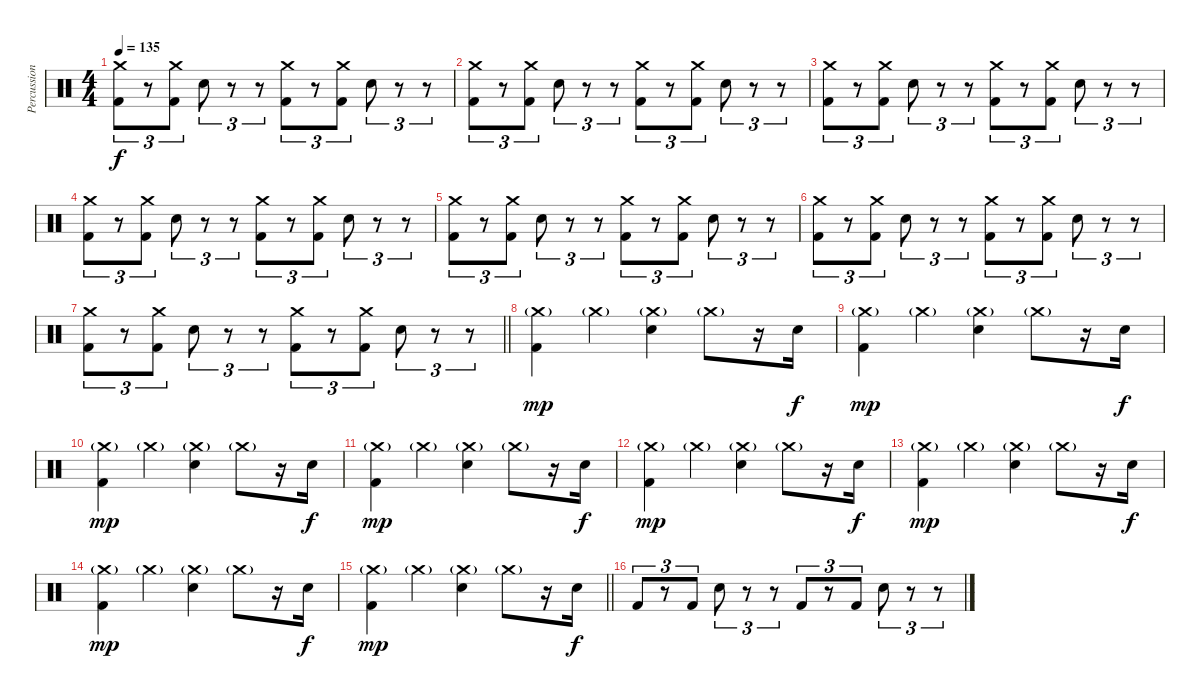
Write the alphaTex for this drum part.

\track ("Percussion" "Percussion") {instrument percussion}
\staff {score}
\articulation defaults
\ts (4 4)
\tempo 135
\clef neutral
\ks c
("Crash medium (hit)" "Kick (hit) 2").8{tu (3 2) dy f} r.8{tu (3 2)} ("Crash medium (hit)" "Kick (hit) 2").8{tu (3 2)} "Electric Snare (hit)".8{tu (3 2)} r.8{tu (3 2)} r.8{tu (3 2)} ("Crash medium (hit)" "Kick (hit) 2").8{tu (3 2)} r.8{tu (3 2)} ("Crash medium (hit)" "Kick (hit) 2").8{tu (3 2)} "Electric Snare (hit)".8{tu (3 2)} r.8{tu (3 2)} r.8{tu (3 2)} |
("Crash medium (hit)" "Kick (hit) 2").8{tu (3 2)} r.8{tu (3 2)} ("Crash medium (hit)" "Kick (hit) 2").8{tu (3 2)} "Electric Snare (hit)".8{tu (3 2)} r.8{tu (3 2)} r.8{tu (3 2)} ("Crash medium (hit)" "Kick (hit) 2").8{tu (3 2)} r.8{tu (3 2)} ("Crash medium (hit)" "Kick (hit) 2").8{tu (3 2)} "Electric Snare (hit)".8{tu (3 2)} r.8{tu (3 2)} r.8{tu (3 2)} |
("Crash medium (hit)" "Kick (hit) 2").8{tu (3 2)} r.8{tu (3 2)} ("Crash medium (hit)" "Kick (hit) 2").8{tu (3 2)} "Electric Snare (hit)".8{tu (3 2)} r.8{tu (3 2)} r.8{tu (3 2)} ("Crash medium (hit)" "Kick (hit) 2").8{tu (3 2)} r.8{tu (3 2)} ("Crash medium (hit)" "Kick (hit) 2").8{tu (3 2)} "Electric Snare (hit)".8{tu (3 2)} r.8{tu (3 2)} r.8{tu (3 2)} |
("Crash medium (hit)" "Kick (hit) 2").8{tu (3 2)} r.8{tu (3 2)} ("Crash medium (hit)" "Kick (hit) 2").8{tu (3 2)} "Electric Snare (hit)".8{tu (3 2)} r.8{tu (3 2)} r.8{tu (3 2)} ("Crash medium (hit)" "Kick (hit) 2").8{tu (3 2)} r.8{tu (3 2)} ("Crash medium (hit)" "Kick (hit) 2").8{tu (3 2)} "Electric Snare (hit)".8{tu (3 2)} r.8{tu (3 2)} r.8{tu (3 2)} |
("Crash medium (hit)" "Kick (hit) 2").8{tu (3 2)} r.8{tu (3 2)} ("Crash medium (hit)" "Kick (hit) 2").8{tu (3 2)} "Electric Snare (hit)".8{tu (3 2)} r.8{tu (3 2)} r.8{tu (3 2)} ("Crash medium (hit)" "Kick (hit) 2").8{tu (3 2)} r.8{tu (3 2)} ("Crash medium (hit)" "Kick (hit) 2").8{tu (3 2)} "Electric Snare (hit)".8{tu (3 2)} r.8{tu (3 2)} r.8{tu (3 2)} |
("Crash medium (hit)" "Kick (hit) 2").8{tu (3 2)} r.8{tu (3 2)} ("Crash medium (hit)" "Kick (hit) 2").8{tu (3 2)} "Electric Snare (hit)".8{tu (3 2)} r.8{tu (3 2)} r.8{tu (3 2)} ("Crash medium (hit)" "Kick (hit) 2").8{tu (3 2)} r.8{tu (3 2)} ("Crash medium (hit)" "Kick (hit) 2").8{tu (3 2)} "Electric Snare (hit)".8{tu (3 2)} r.8{tu (3 2)} r.8{tu (3 2)} |
\barLineRight lightlight
("Crash medium (hit)" "Kick (hit) 2").8{tu (3 2)} r.8{tu (3 2)} ("Crash medium (hit)" "Kick (hit) 2").8{tu (3 2)} "Electric Snare (hit)".8{tu (3 2)} r.8{tu (3 2)} r.8{tu (3 2)} ("Crash medium (hit)" "Kick (hit) 2").8{tu (3 2)} r.8{tu (3 2)} ("Crash medium (hit)" "Kick (hit) 2").8{tu (3 2)} "Electric Snare (hit)".8{tu (3 2)} r.8{tu (3 2)} r.8{tu (3 2)} |
("Crash medium (hit)"{g} "Kick (hit) 2").4{dy mp} "Crash medium (hit)"{g}.4 ("Crash medium (hit)"{g} "Electric Snare (hit)").4 "Crash medium (hit)"{g}.8 r.16 "Electric Snare (hit)".16{dy f} |
("Crash medium (hit)"{g} "Kick (hit) 2").4{dy mp} "Crash medium (hit)"{g}.4 ("Crash medium (hit)"{g} "Electric Snare (hit)").4 "Crash medium (hit)"{g}.8 r.16 "Electric Snare (hit)".16{dy f} |
("Crash medium (hit)"{g} "Kick (hit) 2").4{dy mp} "Crash medium (hit)"{g}.4 ("Crash medium (hit)"{g} "Electric Snare (hit)").4 "Crash medium (hit)"{g}.8 r.16 "Electric Snare (hit)".16{dy f} |
("Crash medium (hit)"{g} "Kick (hit) 2").4{dy mp} "Crash medium (hit)"{g}.4 ("Crash medium (hit)"{g} "Electric Snare (hit)").4 "Crash medium (hit)"{g}.8 r.16 "Electric Snare (hit)".16{dy f} |
("Crash medium (hit)"{g} "Kick (hit) 2").4{dy mp} "Crash medium (hit)"{g}.4 ("Crash medium (hit)"{g} "Electric Snare (hit)").4 "Crash medium (hit)"{g}.8 r.16 "Electric Snare (hit)".16{dy f} |
("Crash medium (hit)"{g} "Kick (hit) 2").4{dy mp} "Crash medium (hit)"{g}.4 ("Crash medium (hit)"{g} "Electric Snare (hit)").4 "Crash medium (hit)"{g}.8 r.16 "Electric Snare (hit)".16{dy f} |
("Crash medium (hit)"{g} "Kick (hit) 2").4{dy mp} "Crash medium (hit)"{g}.4 ("Crash medium (hit)"{g} "Electric Snare (hit)").4 "Crash medium (hit)"{g}.8 r.16 "Electric Snare (hit)".16{dy f} |
\barLineRight lightlight
("Crash medium (hit)"{g} "Kick (hit) 2").4{dy mp} "Crash medium (hit)"{g}.4 ("Crash medium (hit)"{g} "Electric Snare (hit)").4 "Crash medium (hit)"{g}.8 r.16 "Electric Snare (hit)".16{dy f} |
\section ("" "")
"Kick (hit) 2".8{tu (3 2)} r.8{tu (3 2)} "Kick (hit) 2".8{tu (3 2)} "Electric Snare (hit)".8{tu (3 2)} r.8{tu (3 2)} r.8{tu (3 2)} "Kick (hit) 2".8{tu (3 2)} r.8{tu (3 2)} "Kick (hit) 2".8{tu (3 2)} "Electric Snare (hit)".8{tu (3 2)} r.8{tu (3 2)} r.8{tu (3 2)}
